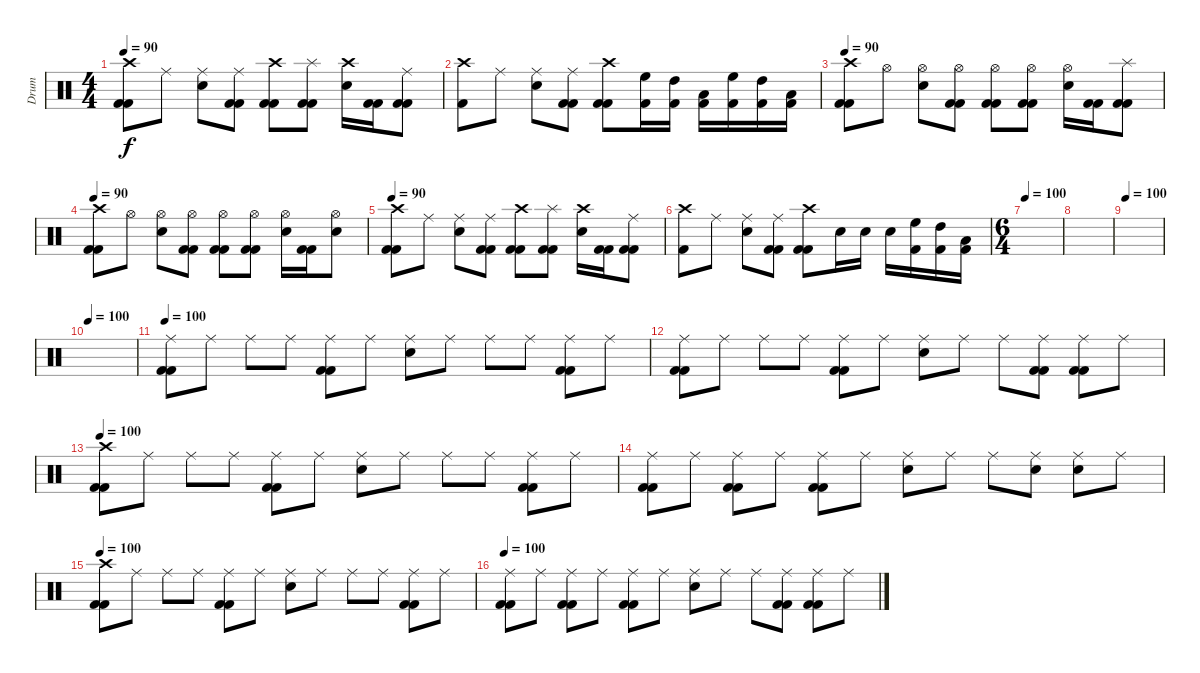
\track ("Drum" "Drum") {instrument percussion}
\staff {score}
\articulation defaults
\ts (4 4)
\tempo 90
\clef neutral
\ks c
("Crash high (hit)" "Kick (hit) 2" "Kick (hit) 2").8{dy f} "Ride (middle)".8 ("Ride (middle)" "Electric Snare (hit)").8 ("Ride (middle)" "Kick (hit) 2" "Kick (hit) 2").8 ("Crash high (hit)" "Kick (hit) 2" "Kick (hit) 2").8 ("Splash (hit)" "Kick (hit) 2" "Kick (hit) 2").8 ("Crash high (hit)" "Electric Snare (hit)").16 ("Kick (hit) 2" "Kick (hit) 2").16 ("Ride (middle)" "Kick (hit) 2" "Kick (hit) 2").8 |
("Crash high (hit)" "Kick (hit) 2").8 "Ride (middle)".8 ("Ride (middle)" "Electric Snare (hit)").8 ("Ride (middle)" "Kick (hit) 2" "Kick (hit) 2").8 ("Crash high (hit)" "Kick (hit) 2" "Kick (hit) 2").8 ("High Floor Tom (hit)" "Kick (hit) 2").16 ("High Tom (hit)" "Kick (hit) 2").16 ("Low Tom (hit)" "Kick (hit) 2").16 ("High Floor Tom (hit)" "Kick (hit) 2").16 ("High Tom (hit)" "Kick (hit) 2").16 ("Low Tom (hit)" "Kick (hit) 2").16 |
\tempo 90
("Crash high (hit)" "Kick (hit) 2" "Kick (hit) 2").8 "Hi-Hat (open)".8 ("Hi-Hat (open)" "Electric Snare (hit)").8 ("Hi-Hat (open)" "Kick (hit) 2" "Kick (hit) 2").8 ("Hi-Hat (open)" "Kick (hit) 2" "Kick (hit) 2").8 ("Hi-Hat (open)" "Kick (hit) 2" "Kick (hit) 2").8 ("Hi-Hat (open)" "Electric Snare (hit)").16 ("Kick (hit) 2" "Kick (hit) 2").16 ("Splash (hit)" "Kick (hit) 2" "Kick (hit) 2").8 |
\tempo 90
("Crash high (hit)" "Kick (hit) 2" "Kick (hit) 2").8 "Hi-Hat (open)".8 ("Hi-Hat (open)" "Electric Snare (hit)").8 ("Hi-Hat (open)" "Kick (hit) 2" "Kick (hit) 2").8 ("Hi-Hat (open)" "Kick (hit) 2" "Kick (hit) 2").8 ("Hi-Hat (open)" "Kick (hit) 2" "Kick (hit) 2").8 ("Hi-Hat (open)" "Electric Snare (hit)").16 ("Kick (hit) 2" "Kick (hit) 2").16 ("Hi-Hat (open)" "Electric Snare (hit)").8 |
\tempo 90
("Crash high (hit)" "Kick (hit) 2" "Kick (hit) 2").8 "Ride (middle)".8 ("Ride (middle)" "Electric Snare (hit)").8 ("Ride (middle)" "Kick (hit) 2" "Kick (hit) 2").8 ("Crash high (hit)" "Kick (hit) 2" "Kick (hit) 2").8 ("Splash (hit)" "Kick (hit) 2" "Kick (hit) 2").8 ("Crash high (hit)" "Electric Snare (hit)").16 ("Kick (hit) 2" "Kick (hit) 2").16 ("Ride (middle)" "Kick (hit) 2" "Kick (hit) 2").8 |
("Crash high (hit)" "Kick (hit) 2").8 "Ride (middle)".8 ("Ride (middle)" "Electric Snare (hit)").8 ("Ride (middle)" "Kick (hit) 2" "Kick (hit) 2").8 ("Crash high (hit)" "Kick (hit) 2" "Kick (hit) 2").8 "Electric Snare (hit)".16 "Electric Snare (hit)".16 "Electric Snare (hit)".16 ("High Floor Tom (hit)" "Kick (hit) 2").16 ("High Tom (hit)" "Kick (hit) 2").16 ("Low Tom (hit)" "Kick (hit) 2").16 |
\ts (6 4)
\tempo 100
|
|
\tempo 100
|
\tempo 100
|
\tempo 100
("Ride (middle)" "Kick (hit) 2" "Kick (hit) 2").8 "Ride (middle)".8 "Ride (middle)".8 "Ride (middle)".8 ("Ride (middle)" "Kick (hit) 2" "Kick (hit) 2").8 "Ride (middle)".8 ("Ride (middle)" "Electric Snare (hit)").8 "Ride (middle)".8 "Ride (middle)".8 "Ride (middle)".8 ("Ride (middle)" "Kick (hit) 2" "Kick (hit) 2").8 "Ride (middle)".8 |
("Ride (middle)" "Kick (hit) 2" "Kick (hit) 2").8 "Ride (middle)".8 "Ride (middle)".8 "Ride (middle)".8 ("Ride (middle)" "Kick (hit) 2" "Kick (hit) 2").8 "Ride (middle)".8 ("Ride (middle)" "Electric Snare (hit)").8 "Ride (middle)".8 "Ride (middle)".8 ("Ride (middle)" "Kick (hit) 2" "Kick (hit) 2").8 ("Ride (middle)" "Kick (hit) 2" "Kick (hit) 2").8 "Ride (middle)".8 |
\tempo 100
("Crash high (hit)" "Kick (hit) 2" "Kick (hit) 2").8 "Ride (middle)".8 "Ride (middle)".8 "Ride (middle)".8 ("Ride (middle)" "Kick (hit) 2" "Kick (hit) 2").8 "Ride (middle)".8 ("Ride (middle)" "Electric Snare (hit)").8 "Ride (middle)".8 "Ride (middle)".8 "Ride (middle)".8 ("Ride (middle)" "Kick (hit) 2" "Kick (hit) 2").8 "Ride (middle)".8 |
("Ride (middle)" "Kick (hit) 2" "Kick (hit) 2").8 "Ride (middle)".8 ("Ride (middle)" "Kick (hit) 2" "Kick (hit) 2").8 "Ride (middle)".8 ("Ride (middle)" "Kick (hit) 2" "Kick (hit) 2").8 "Ride (middle)".8 ("Ride (middle)" "Electric Snare (hit)").8 "Ride (middle)".8 "Ride (middle)".8 ("Ride (middle)" "Electric Snare (hit)").8 ("Ride (middle)" "Electric Snare (hit)").8 "Ride (middle)".8 |
\tempo 100
("Crash high (hit)" "Kick (hit) 2" "Kick (hit) 2").8 "Ride (middle)".8 "Ride (middle)".8 "Ride (middle)".8 ("Ride (middle)" "Kick (hit) 2" "Kick (hit) 2").8 "Ride (middle)".8 ("Ride (middle)" "Electric Snare (hit)").8 "Ride (middle)".8 "Ride (middle)".8 "Ride (middle)".8 ("Ride (middle)" "Kick (hit) 2" "Kick (hit) 2").8 "Ride (middle)".8 |
\tempo 100
("Ride (middle)" "Kick (hit) 2" "Kick (hit) 2").8 "Ride (middle)".8 ("Ride (middle)" "Kick (hit) 2" "Kick (hit) 2").8 "Ride (middle)".8 ("Ride (middle)" "Kick (hit) 2" "Kick (hit) 2").8 "Ride (middle)".8 ("Ride (middle)" "Electric Snare (hit)").8 "Ride (middle)".8 "Ride (middle)".8 ("Ride (middle)" "Kick (hit) 2" "Kick (hit) 2").8 ("Ride (middle)" "Kick (hit) 2" "Kick (hit) 2").8 "Ride (middle)".8
